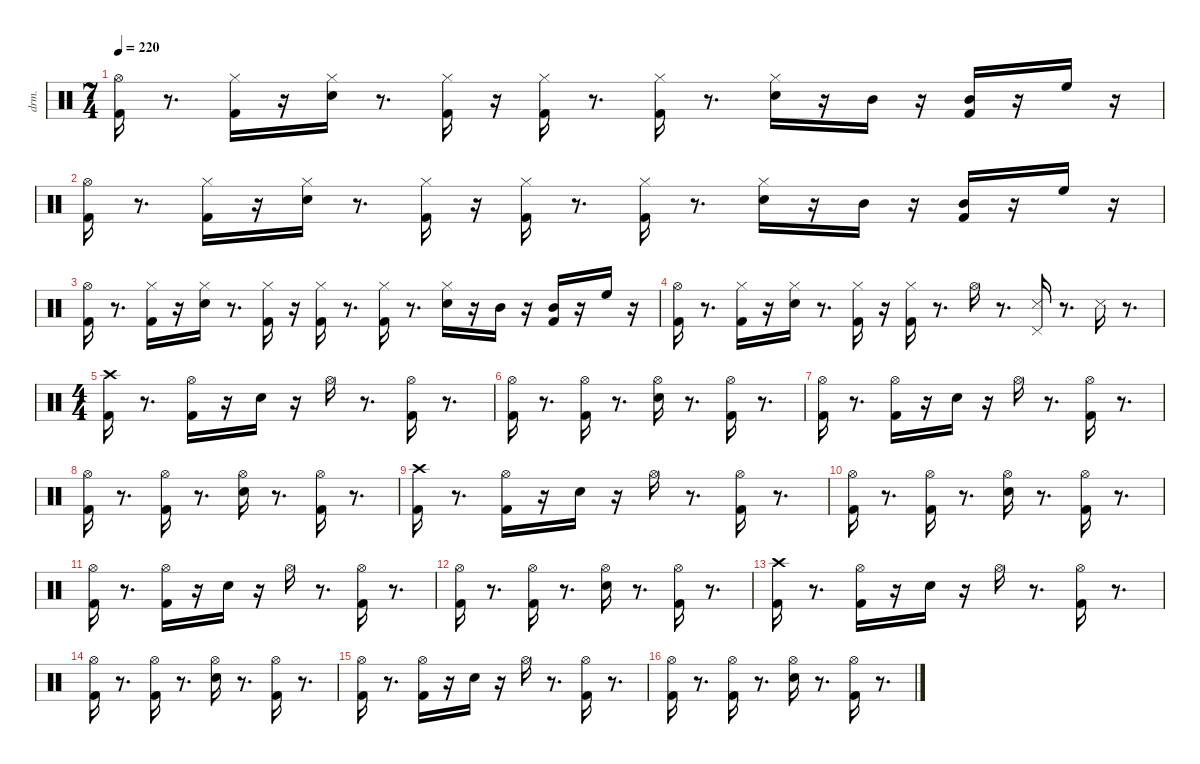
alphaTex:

\defaultSystemsLayout 4
\hideDynamics
\bracketExtendMode nobrackets
\otherSystemsTrackNameOrientation horizontal
\track ("EZdrummer 3" "drm.") {instrument percussion}
\staff {score}
\articulation defaults
\ts (7 4)
\tempo 220
\clef neutral
\ks c
("Kick (hit) 2" "Hi-Hat (open)"{acc #}).16{dy fff beam Down} r.8{d beam Down} ("Kick (hit) 2" "Hi-Hat (closed)"{acc #}).16{dy f beam Down} r.16{beam Down} ("Snare (hit) 2" "Hi-Hat (closed)"{acc #}).16{dy ff beam Down} r.8{d beam Down} ("Kick (hit) 2" "Hi-Hat (closed)"{acc #}).16{dy f beam Down} r.16{beam Down} ("Kick (hit) 2" "Hi-Hat (closed)"{acc #}).16{dy ff beam Down} r.8{d beam Down} ("Kick (hit) 2" "Hi-Hat (closed)"{acc #}).16{dy f beam Down} r.8{d beam Down} ("Snare (hit) 2" "Hi-Hat (closed)"{acc #}).16{dy fff beam Down} r.16{beam Down} "Mid Tom (hit)".16{dy f beam Down} r.16{beam Down} ("Kick (hit) 2" "Mid Tom (hit)").16{beam Up} r.16{beam Up} "High Floor Tom (hit)".16{beam Down} r.16{beam Down} |
("Kick (hit) 2" "Hi-Hat (open)"{acc #}).16{dy fff beam Down} r.8{d beam Down} ("Kick (hit) 2" "Hi-Hat (closed)"{acc #}).16{dy f beam Down} r.16{beam Down} ("Snare (hit) 2" "Hi-Hat (closed)"{acc #}).16{dy ff beam Down} r.8{d beam Down} ("Kick (hit) 2" "Hi-Hat (closed)"{acc #}).16{dy f beam Down} r.16{beam Down} ("Kick (hit) 2" "Hi-Hat (closed)"{acc #}).16{dy ff beam Down} r.8{d beam Down} ("Kick (hit) 2" "Hi-Hat (closed)"{acc #}).16{dy f beam Down} r.8{d beam Down} ("Snare (hit) 2" "Hi-Hat (closed)"{acc #}).16{dy fff beam Down} r.16{beam Down} "Mid Tom (hit)".16{dy f beam Down} r.16{beam Down} ("Kick (hit) 2" "Mid Tom (hit)").16{beam Up} r.16{beam Up} "High Floor Tom (hit)".16{beam Down} r.16{beam Down} |
("Kick (hit) 2" "Hi-Hat (open)"{acc #}).16{dy fff beam Down} r.8{d beam Down} ("Kick (hit) 2" "Hi-Hat (closed)"{acc #}).16{dy f beam Down} r.16{beam Down} ("Snare (hit) 2" "Hi-Hat (closed)"{acc #}).16{dy ff beam Down} r.8{d beam Down} ("Kick (hit) 2" "Hi-Hat (closed)"{acc #}).16{dy f beam Down} r.16{beam Down} ("Kick (hit) 2" "Hi-Hat (closed)"{acc #}).16{dy ff beam Down} r.8{d beam Down} ("Kick (hit) 2" "Hi-Hat (closed)"{acc #}).16{dy f beam Down} r.8{d beam Down} ("Snare (hit) 2" "Hi-Hat (closed)"{acc #}).16{dy fff beam Down} r.16{beam Down} "Mid Tom (hit)".16{dy f beam Down} r.16{beam Down} ("Kick (hit) 2" "Mid Tom (hit)").16{beam Up} r.16{beam Up} "High Floor Tom (hit)".16{beam Down} r.16{beam Down} |
("Kick (hit) 2" "Hi-Hat (open)"{acc #}).16{dy fff beam Down} r.8{d beam Down} ("Kick (hit) 2" "Hi-Hat (closed)"{acc #}).16{dy f beam Down} r.16{beam Down} ("Snare (hit) 2" "Hi-Hat (closed)"{acc #}).16{beam Down} r.8{d beam Down} ("Kick (hit) 2" "Hi-Hat (closed)"{acc #}).16{beam Down} r.16{beam Down} ("Kick (hit) 2" "Hi-Hat (closed)"{acc #}).16{dy fff beam Down} r.8{d beam Down} "Hi-Hat (open)"{acc #}.16{beam Down} r.8{d beam Down} ("Snare (side stick) 3"{acc #} "Pedal Hi-Hat (hit)"{acc #}).16{beam Up} r.8{d beam Up} "Snare (side stick) 3"{acc #}.16{beam Down} r.8{d beam Down} |
\ts (4 4)
\beaming (8 2 2 2 2)
("Kick (hit) 2" "Crash high (hit)"{acc #}).16{beam Down} r.8{d beam Down} ("Kick (hit) 2" "Hi-Hat (open)"{acc #}).16{dy ff beam Down} r.16{beam Down} "Snare (hit) 2".16{beam Down} r.16{beam Down} "Hi-Hat (open)"{acc #}.16{beam Down} r.8{d beam Down} ("Kick (hit) 2" "Hi-Hat (open)"{acc #}).16{beam Down} r.8{d beam Down} |
("Kick (hit) 2" "Hi-Hat (open)"{acc #}).16{beam Down} r.8{d beam Down} ("Kick (hit) 2" "Hi-Hat (open)"{acc #}).16{beam Down} r.8{d beam Down} ("Snare (hit) 2" "Hi-Hat (open)"{acc #}).16{beam Down} r.8{d beam Down} ("Kick (hit) 2" "Hi-Hat (open)"{acc #}).16{dy mf beam Down} r.8{d beam Down} |
("Kick (hit) 2" "Hi-Hat (open)"{acc #}).16{dy fff beam Down} r.8{d beam Down} ("Kick (hit) 2" "Hi-Hat (open)"{acc #}).16{dy ff beam Down} r.16{beam Down} "Snare (hit) 2".16{beam Down} r.16{beam Down} "Hi-Hat (open)"{acc #}.16{beam Down} r.8{d beam Down} ("Kick (hit) 2" "Hi-Hat (open)"{acc #}).16{beam Down} r.8{d beam Down} |
("Kick (hit) 2" "Hi-Hat (open)"{acc #}).16{beam Down} r.8{d beam Down} ("Kick (hit) 2" "Hi-Hat (open)"{acc #}).16{beam Down} r.8{d beam Down} ("Snare (hit) 2" "Hi-Hat (open)"{acc #}).16{beam Down} r.8{d beam Down} ("Kick (hit) 2" "Hi-Hat (open)"{acc #}).16{dy mf beam Down} r.8{d beam Down} |
("Kick (hit) 2" "Crash high (hit)"{acc #}).16{dy fff beam Down} r.8{d beam Down} ("Kick (hit) 2" "Hi-Hat (open)"{acc #}).16{dy ff beam Down} r.16{beam Down} "Snare (hit) 2".16{beam Down} r.16{beam Down} "Hi-Hat (open)"{acc #}.16{beam Down} r.8{d beam Down} ("Kick (hit) 2" "Hi-Hat (open)"{acc #}).16{beam Down} r.8{d beam Down} |
("Kick (hit) 2" "Hi-Hat (open)"{acc #}).16{beam Down} r.8{d beam Down} ("Kick (hit) 2" "Hi-Hat (open)"{acc #}).16{beam Down} r.8{d beam Down} ("Snare (hit) 2" "Hi-Hat (open)"{acc #}).16{beam Down} r.8{d beam Down} ("Kick (hit) 2" "Hi-Hat (open)"{acc #}).16{dy mf beam Down} r.8{d beam Down} |
("Kick (hit) 2" "Hi-Hat (open)"{acc #}).16{dy fff beam Down} r.8{d beam Down} ("Kick (hit) 2" "Hi-Hat (open)"{acc #}).16{dy ff beam Down} r.16{beam Down} "Snare (hit) 2".16{beam Down} r.16{beam Down} "Hi-Hat (open)"{acc #}.16{beam Down} r.8{d beam Down} ("Kick (hit) 2" "Hi-Hat (open)"{acc #}).16{beam Down} r.8{d beam Down} |
("Kick (hit) 2" "Hi-Hat (open)"{acc #}).16{beam Down} r.8{d beam Down} ("Kick (hit) 2" "Hi-Hat (open)"{acc #}).16{beam Down} r.8{d beam Down} ("Snare (hit) 2" "Hi-Hat (open)"{acc #}).16{beam Down} r.8{d beam Down} ("Kick (hit) 2" "Hi-Hat (open)"{acc #}).16{dy mf beam Down} r.8{d beam Down} |
("Kick (hit) 2" "Crash high (hit)"{acc #}).16{dy fff beam Down} r.8{d beam Down} ("Kick (hit) 2" "Hi-Hat (open)"{acc #}).16{dy ff beam Down} r.16{beam Down} "Snare (hit) 2".16{beam Down} r.16{beam Down} "Hi-Hat (open)"{acc #}.16{beam Down} r.8{d beam Down} ("Kick (hit) 2" "Hi-Hat (open)"{acc #}).16{beam Down} r.8{d beam Down} |
("Kick (hit) 2" "Hi-Hat (open)"{acc #}).16{beam Down} r.8{d beam Down} ("Kick (hit) 2" "Hi-Hat (open)"{acc #}).16{beam Down} r.8{d beam Down} ("Snare (hit) 2" "Hi-Hat (open)"{acc #}).16{beam Down} r.8{d beam Down} ("Kick (hit) 2" "Hi-Hat (open)"{acc #}).16{dy mf beam Down} r.8{d beam Down} |
("Kick (hit) 2" "Hi-Hat (open)"{acc #}).16{dy fff beam Down} r.8{d beam Down} ("Kick (hit) 2" "Hi-Hat (open)"{acc #}).16{dy ff beam Down} r.16{beam Down} "Snare (hit) 2".16{beam Down} r.16{beam Down} "Hi-Hat (open)"{acc #}.16{beam Down} r.8{d beam Down} ("Kick (hit) 2" "Hi-Hat (open)"{acc #}).16{beam Down} r.8{d beam Down} |
("Kick (hit) 2" "Hi-Hat (open)"{acc #}).16{beam Down} r.8{d beam Down} ("Kick (hit) 2" "Hi-Hat (open)"{acc #}).16{beam Down} r.8{d beam Down} ("Snare (hit) 2" "Hi-Hat (open)"{acc #}).16{beam Down} r.8{d beam Down} ("Kick (hit) 2" "Hi-Hat (open)"{acc #}).16{dy mf beam Down} r.8{d beam Down}
